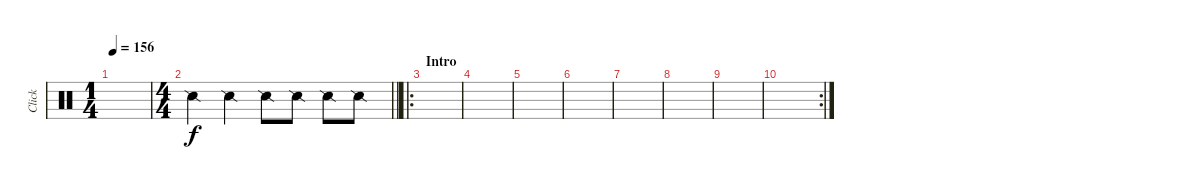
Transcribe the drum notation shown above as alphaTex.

\track ("Click" "Click") {instrument percussion}
\staff {score}
\articulation defaults
\ts (1 4)
\tempo 156
\clef neutral
\ks c
|
\ts (4 4)
\barLineRight lightlight "Snare (side stick) 2".4 "Snare (side stick) 2".4 "Snare (side stick) 2".8 "Snare (side stick) 2".8 "Snare (side stick) 2".8 "Snare (side stick) 2".8
|
\ro
\section ("" "Intro")
|
|
|
|
|
|
|
\rc 2
